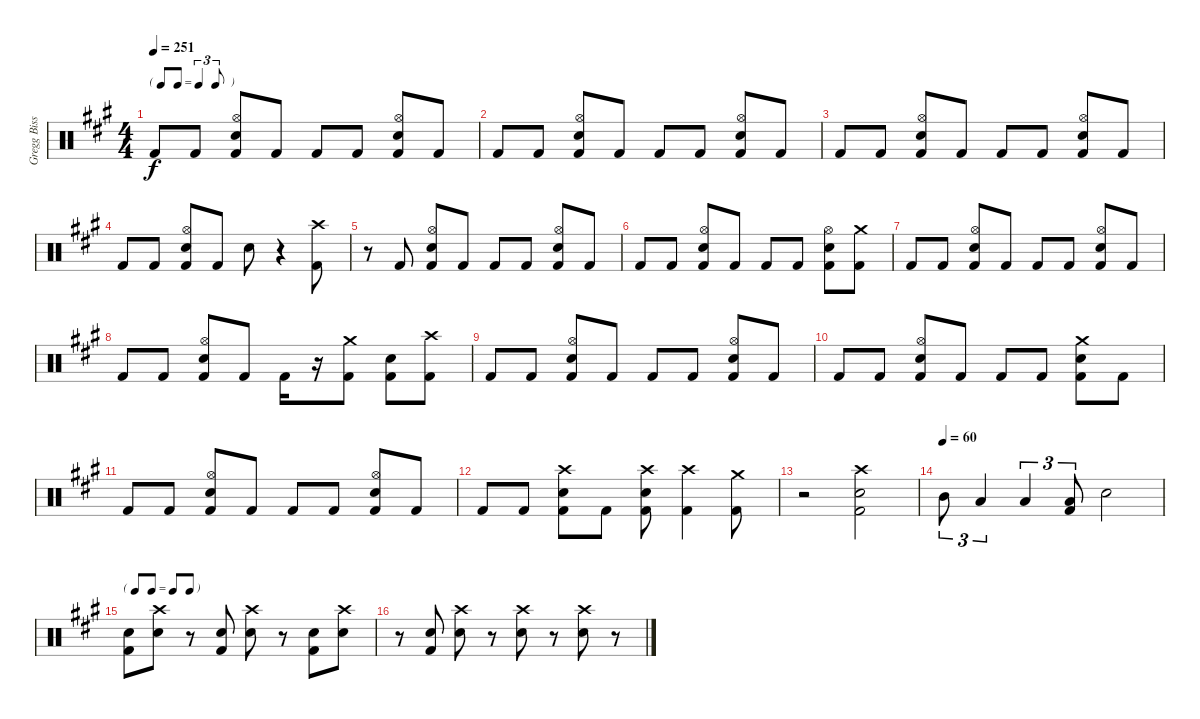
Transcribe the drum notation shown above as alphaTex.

\track ("Gregg Bissonette" "Gregg Biss") {instrument percussion}
\staff {score}
\articulation defaults
\ts (4 4)
\tf triplet8th
\tempo 251
\clef neutral
\ks f#minor "Kick (hit) 2".8{dy f} "Kick (hit) 2".8
("Hi-Hat (open)" "Electric Snare (hit)" "Kick (hit) 2").8 "Kick (hit) 2".8 "Kick (hit) 2".8 "Kick (hit) 2".8 ("Hi-Hat (open)" "Electric Snare (hit)" "Kick (hit) 2").8 "Kick (hit) 2".8 |
"Kick (hit) 2".8 "Kick (hit) 2".8 ("Hi-Hat (open)" "Electric Snare (hit)" "Kick (hit) 2").8 "Kick (hit) 2".8 "Kick (hit) 2".8 "Kick (hit) 2".8 ("Hi-Hat (open)" "Electric Snare (hit)" "Kick (hit) 2").8 "Kick (hit) 2".8 |
"Kick (hit) 2".8 "Kick (hit) 2".8 ("Hi-Hat (open)" "Electric Snare (hit)" "Kick (hit) 2").8 "Kick (hit) 2".8 "Kick (hit) 2".8 "Kick (hit) 2".8 ("Hi-Hat (open)" "Electric Snare (hit)" "Kick (hit) 2").8 "Kick (hit) 2".8 |
"Kick (hit) 2".8 "Kick (hit) 2".8 ("Hi-Hat (open)" "Electric Snare (hit)" "Kick (hit) 2").8 "Kick (hit) 2".8 "Electric Snare (hit)".8 r.4 ("Crash high (hit)" "Kick (hit) 2").8 |
r.8 "Kick (hit) 2".8 ("Hi-Hat (open)" "Electric Snare (hit)" "Kick (hit) 2").8 "Kick (hit) 2".8 "Kick (hit) 2".8 "Kick (hit) 2".8 ("Hi-Hat (open)" "Electric Snare (hit)" "Kick (hit) 2").8 "Kick (hit) 2".8 |
"Kick (hit) 2".8 "Kick (hit) 2".8 ("Hi-Hat (open)" "Electric Snare (hit)" "Kick (hit) 2").8 "Kick (hit) 2".8 "Kick (hit) 2".8 "Kick (hit) 2".8 ("Hi-Hat (open)" "Electric Snare (hit)" "Kick (hit) 2").8 ("Crash medium (hit)" "Kick (hit) 2").8 |
"Kick (hit) 2".8 "Kick (hit) 2".8 ("Hi-Hat (open)" "Electric Snare (hit)" "Kick (hit) 2").8 "Kick (hit) 2".8 "Kick (hit) 2".8 "Kick (hit) 2".8 ("Hi-Hat (open)" "Electric Snare (hit)" "Kick (hit) 2").8 "Kick (hit) 2".8 |
"Kick (hit) 2".8 "Kick (hit) 2".8 ("Hi-Hat (open)" "Electric Snare (hit)" "Kick (hit) 2").8 "Kick (hit) 2".8 "Kick (hit) 2".16 r.16 ("Crash medium (hit)" "Kick (hit) 2").8 ("Electric Snare (hit)" "Kick (hit) 2").8 ("Crash high (hit)" "Kick (hit) 2").8 |
"Kick (hit) 2".8 "Kick (hit) 2".8 ("Hi-Hat (open)" "Electric Snare (hit)" "Kick (hit) 2").8 "Kick (hit) 2".8 "Kick (hit) 2".8 "Kick (hit) 2".8 ("Hi-Hat (open)" "Electric Snare (hit)" "Kick (hit) 2").8 "Kick (hit) 2".8 |
"Kick (hit) 2".8 "Kick (hit) 2".8 ("Hi-Hat (open)" "Electric Snare (hit)" "Kick (hit) 2").8 "Kick (hit) 2".8 "Kick (hit) 2".8 "Kick (hit) 2".8 ("Crash medium (hit)" "Electric Snare (hit)" "Kick (hit) 2").8 "Kick (hit) 2".8 |
"Kick (hit) 2".8 "Kick (hit) 2".8 ("Hi-Hat (open)" "Electric Snare (hit)" "Kick (hit) 2").8 "Kick (hit) 2".8 "Kick (hit) 2".8 "Kick (hit) 2".8 ("Hi-Hat (open)" "Electric Snare (hit)" "Kick (hit) 2").8 "Kick (hit) 2".8 |
"Kick (hit) 2".8 "Kick (hit) 2".8 ("Crash high (hit)" "Electric Snare (hit)" "Kick (hit) 2").8 "Kick (hit) 2".8 ("Crash high (hit)" "Electric Snare (hit)" "Kick (hit) 2").8 ("Crash high (hit)" "Kick (hit) 2").4 ("Crash medium (hit)" "Kick (hit) 2").8 |
r.2 ("Crash high (hit)" "Electric Snare (hit)" "Kick (hit) 2").2 |
\tempo (60)
"Mid Tom (hit)".8{tu (3 2)} "Low Tom (hit)".4{tu (3 2)} "Low Tom (hit)".4{tu (3 2)} ("Low Tom (hit)" "Kick (hit) 2").8{tu (3 2)} "Electric Snare (hit)".2 |
\tf none
("Electric Snare (hit)" "Kick (hit) 2").8 ("Crash high (hit)" "Electric Snare (hit)").8 r.8 ("Electric Snare (hit)" "Kick (hit) 2").8 ("Crash high (hit)" "Electric Snare (hit)").8 r.8 ("Electric Snare (hit)" "Kick (hit) 2").8 ("Crash high (hit)" "Electric Snare (hit)").8 |
r.8 ("Electric Snare (hit)" "Kick (hit) 2").8 ("Crash high (hit)" "Electric Snare (hit)").8 r.8 ("Crash high (hit)" "Electric Snare (hit)").8 r.8 ("Crash high (hit)" "Electric Snare (hit)").8 r.8
